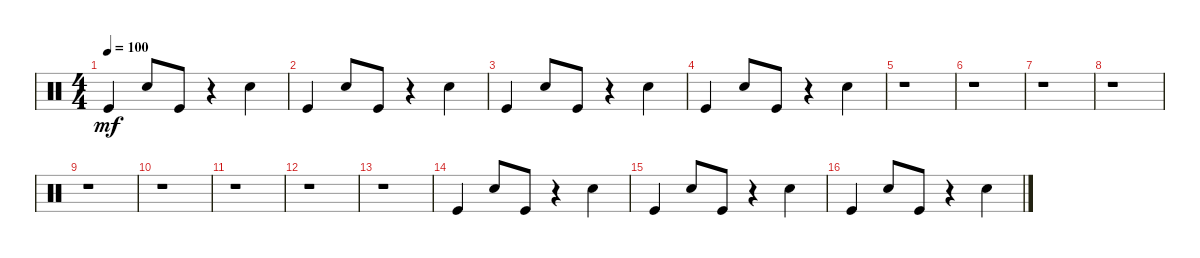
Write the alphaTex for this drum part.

\track "" {instrument percussion}
\staff {score}
\articulation defaults
\ts (4 4)
\tempo 100
\clef neutral
\ks c "Kick (hit)".4{dy mf} "Snare (hit) 2".8 "Kick (hit)".8
r.4 "Snare (hit) 2".4 |
"Kick (hit)".4 "Snare (hit) 2".8 "Kick (hit)".8 r.4 "Snare (hit) 2".4 |
"Kick (hit)".4 "Snare (hit) 2".8 "Kick (hit)".8 r.4 "Snare (hit) 2".4 |
"Kick (hit)".4 "Snare (hit) 2".8 "Kick (hit)".8 r.4 "Snare (hit) 2".4 |
r.1 |
r.1 |
r.1 |
r.1 |
r.1 |
r.1 |
r.1 |
r.1 |
r.1 |
"Kick (hit)".4 "Snare (hit) 2".8 "Kick (hit)".8 r.4 "Snare (hit) 2".4 |
"Kick (hit)".4 "Snare (hit) 2".8 "Kick (hit)".8 r.4 "Snare (hit) 2".4 |
"Kick (hit)".4 "Snare (hit) 2".8 "Kick (hit)".8 r.4 "Snare (hit) 2".4
